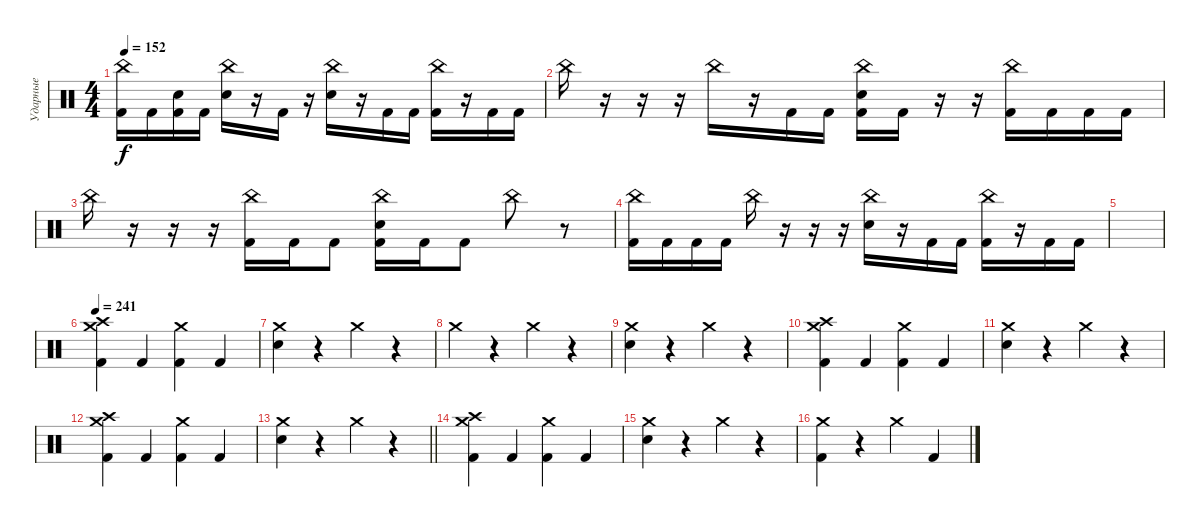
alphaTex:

\track ("Ударные" "Ударные") {instrument percussion}
\staff {score}
\articulation defaults
\ts (4 4)
\tempo 152
\clef neutral
\ks c
("China (hit)" "Kick (hit) 2").16{dy f} "Kick (hit) 2".16 ("Electric Snare (hit)" "Kick (hit) 2").16 "Kick (hit) 2".16 ("China (hit)" "Electric Snare (hit)").16 r.16 "Kick (hit) 2".16 r.16 ("China (hit)" "Electric Snare (hit)").16 r.16 "Kick (hit) 2".16 "Kick (hit) 2".16 ("China (hit)" "Kick (hit) 2").16 r.16 "Kick (hit) 2".16 "Kick (hit) 2".16 |
"China (hit)".16 r.16 r.16 r.16 "China (hit)".16 r.16 "Kick (hit) 2".16 "Kick (hit) 2".16 ("China (hit)" "Electric Snare (hit)" "Kick (hit) 2").16 "Kick (hit) 2".16 r.16 r.16 ("China (hit)" "Kick (hit) 2").16 "Kick (hit) 2".16 "Kick (hit) 2".16 "Kick (hit) 2".16 |
"China (hit)".16 r.16 r.16 r.16 ("China (hit)" "Kick (hit) 2").16 "Kick (hit) 2".16 "Kick (hit) 2".8 ("China (hit)" "Electric Snare (hit)" "Kick (hit) 2").16 "Kick (hit) 2".16 "Kick (hit) 2".8 "China (hit)".8 r.8 |
("China (hit)" "Kick (hit) 2").16 "Kick (hit) 2".16 "Kick (hit) 2".16 "Kick (hit) 2".16 "China (hit)".16 r.16 r.16 r.16 ("China (hit)" "Electric Snare (hit)").16 r.16 "Kick (hit) 2".16 "Kick (hit) 2".16 ("China (hit)" "Kick (hit) 2").16 r.16 "Kick (hit) 2".16 "Kick (hit) 2".16 |
|
\tempo 241
("Crash medium (hit)" "Crash high (hit)" "Kick (hit) 2").4 "Kick (hit) 2".4 ("Crash medium (hit)" "Kick (hit) 2").4 "Kick (hit) 2".4 |
("Crash medium (hit)" "Electric Snare (hit)").4 r.4 "Crash medium (hit)".4 r.4 |
"Crash medium (hit)".4 r.4 "Crash medium (hit)".4 r.4 |
("Crash medium (hit)" "Electric Snare (hit)").4 r.4 "Crash medium (hit)".4 r.4 |
("Crash medium (hit)" "Crash high (hit)" "Kick (hit) 2").4 "Kick (hit) 2".4 ("Crash medium (hit)" "Kick (hit) 2").4 "Kick (hit) 2".4 |
("Crash medium (hit)" "Electric Snare (hit)").4 r.4 "Crash medium (hit)".4 r.4 |
("Crash medium (hit)" "Crash high (hit)" "Kick (hit) 2").4 "Kick (hit) 2".4 ("Crash medium (hit)" "Kick (hit) 2").4 "Kick (hit) 2".4 |
\barLineRight lightlight
("Crash medium (hit)" "Electric Snare (hit)").4 r.4 "Crash medium (hit)".4 r.4 |
("Crash medium (hit)" "Crash high (hit)" "Kick (hit) 2").4 "Kick (hit) 2".4 ("Crash medium (hit)" "Kick (hit) 2").4 "Kick (hit) 2".4 |
("Crash medium (hit)" "Electric Snare (hit)").4 r.4 "Crash medium (hit)".4 r.4 |
("Crash medium (hit)" "Kick (hit) 2").4 r.4 "Crash medium (hit)".4 "Kick (hit) 2".4
